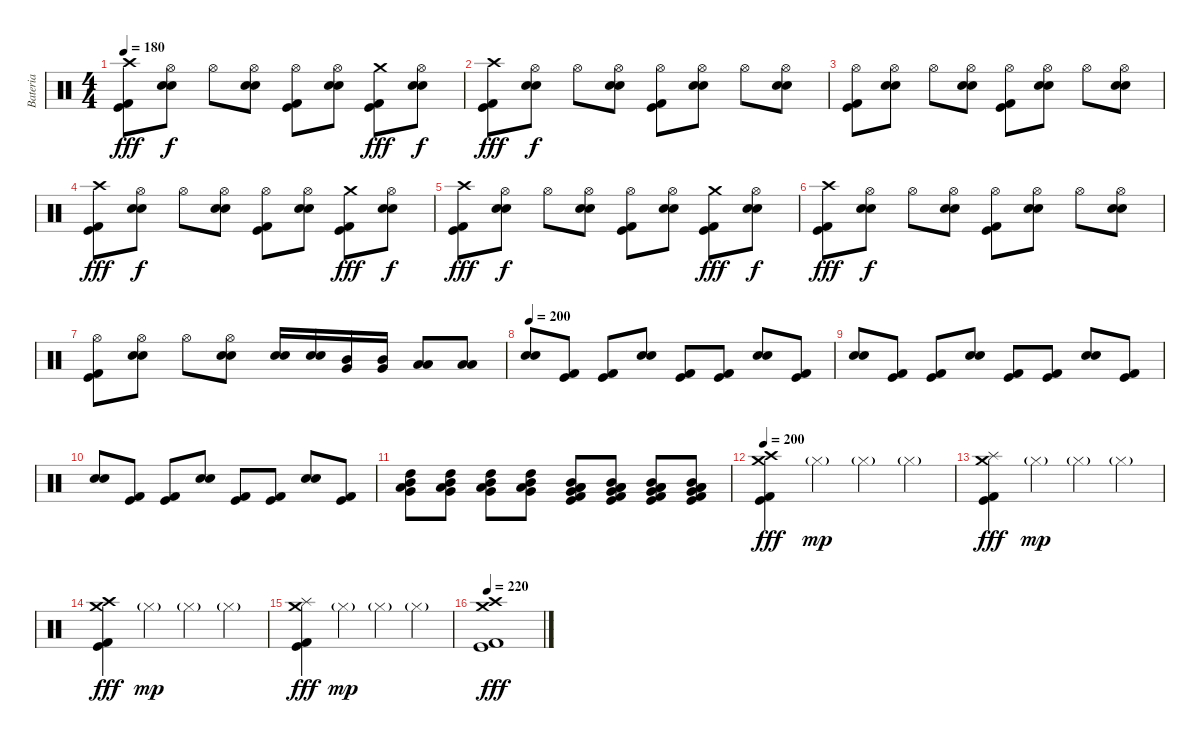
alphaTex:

\track ("Bateria" "Bateria") {instrument percussion}
\staff {score}
\articulation defaults
\ts (4 4)
\tempo 180
\clef neutral
\ks c
("Crash high (hit)" "Kick (hit) 2" "Kick (hit)").8{dy fff} ("Hi-Hat (open)" "Electric Snare (hit)" "Snare (hit) 2").8{dy f} "Hi-Hat (open)".8 ("Hi-Hat (open)" "Electric Snare (hit)" "Snare (hit) 2").8 ("Hi-Hat (open)" "Kick (hit) 2" "Kick (hit)").8 ("Hi-Hat (open)" "Electric Snare (hit)" "Snare (hit) 2").8 ("Crash medium (hit)" "Kick (hit) 2" "Kick (hit)").8{dy fff} ("Hi-Hat (open)" "Electric Snare (hit)" "Snare (hit) 2").8{dy f} |
("Crash high (hit)" "Kick (hit) 2" "Kick (hit)").8{dy fff} ("Hi-Hat (open)" "Electric Snare (hit)" "Snare (hit) 2").8{dy f} "Hi-Hat (open)".8 ("Hi-Hat (open)" "Electric Snare (hit)" "Snare (hit) 2").8 ("Hi-Hat (open)" "Kick (hit) 2" "Kick (hit)").8 ("Hi-Hat (open)" "Electric Snare (hit)" "Snare (hit) 2").8 "Hi-Hat (open)".8 ("Hi-Hat (open)" "Electric Snare (hit)" "Snare (hit) 2").8 |
("Hi-Hat (open)" "Kick (hit) 2" "Kick (hit)").8 ("Hi-Hat (open)" "Electric Snare (hit)" "Snare (hit) 2").8 "Hi-Hat (open)".8 ("Hi-Hat (open)" "Electric Snare (hit)" "Snare (hit) 2").8 ("Hi-Hat (open)" "Kick (hit) 2" "Kick (hit)").8 ("Hi-Hat (open)" "Electric Snare (hit)" "Snare (hit) 2").8 "Hi-Hat (open)".8 ("Hi-Hat (open)" "Electric Snare (hit)" "Snare (hit) 2").8 |
("Crash high (hit)" "Kick (hit) 2" "Kick (hit)").8{dy fff} ("Hi-Hat (open)" "Electric Snare (hit)" "Snare (hit) 2").8{dy f} "Hi-Hat (open)".8 ("Hi-Hat (open)" "Electric Snare (hit)" "Snare (hit) 2").8 ("Hi-Hat (open)" "Kick (hit) 2" "Kick (hit)").8 ("Hi-Hat (open)" "Electric Snare (hit)" "Snare (hit) 2").8 ("Crash medium (hit)" "Kick (hit) 2" "Kick (hit)").8{dy fff} ("Hi-Hat (open)" "Electric Snare (hit)" "Snare (hit) 2").8{dy f} |
("Crash high (hit)" "Kick (hit) 2" "Kick (hit)").8{dy fff} ("Hi-Hat (open)" "Electric Snare (hit)" "Snare (hit) 2").8{dy f} "Hi-Hat (open)".8 ("Hi-Hat (open)" "Electric Snare (hit)" "Snare (hit) 2").8 ("Hi-Hat (open)" "Kick (hit) 2" "Kick (hit)").8 ("Hi-Hat (open)" "Electric Snare (hit)" "Snare (hit) 2").8 ("Crash medium (hit)" "Kick (hit) 2" "Kick (hit)").8{dy fff} ("Hi-Hat (open)" "Electric Snare (hit)" "Snare (hit) 2").8{dy f} |
("Crash high (hit)" "Kick (hit) 2" "Kick (hit)").8{dy fff} ("Hi-Hat (open)" "Electric Snare (hit)" "Snare (hit) 2").8{dy f} "Hi-Hat (open)".8 ("Hi-Hat (open)" "Electric Snare (hit)" "Snare (hit) 2").8 ("Hi-Hat (open)" "Kick (hit) 2" "Kick (hit)").8 ("Hi-Hat (open)" "Electric Snare (hit)" "Snare (hit) 2").8 "Hi-Hat (open)".8 ("Hi-Hat (open)" "Electric Snare (hit)" "Snare (hit) 2").8 |
("Hi-Hat (open)" "Kick (hit) 2" "Kick (hit)").8 ("Hi-Hat (open)" "Electric Snare (hit)" "Snare (hit) 2").8 "Hi-Hat (open)".8 ("Hi-Hat (open)" "Electric Snare (hit)" "Snare (hit) 2").8 ("Electric Snare (hit)" "Snare (hit) 2").16 ("Electric Snare (hit)" "Snare (hit) 2").16 ("Mid Tom (hit)" "Very Low Tom (hit)").16 ("Mid Tom (hit)" "Very Low Tom (hit)").16 ("Low Tom (hit)" "Low Floor Tom (hit)").8 ("Low Tom (hit)" "Low Floor Tom (hit)").8 |
\tempo 200
("Electric Snare (hit)" "Snare (hit) 2").8 ("Kick (hit) 2" "Kick (hit)").8 ("Kick (hit) 2" "Kick (hit)").8 ("Electric Snare (hit)" "Snare (hit) 2").8 ("Kick (hit) 2" "Kick (hit)").8 ("Kick (hit) 2" "Kick (hit)").8 ("Electric Snare (hit)" "Snare (hit) 2").8 ("Kick (hit) 2" "Kick (hit)").8 |
("Electric Snare (hit)" "Snare (hit) 2").8 ("Kick (hit) 2" "Kick (hit)").8 ("Kick (hit) 2" "Kick (hit)").8 ("Electric Snare (hit)" "Snare (hit) 2").8 ("Kick (hit) 2" "Kick (hit)").8 ("Kick (hit) 2" "Kick (hit)").8 ("Electric Snare (hit)" "Snare (hit) 2").8 ("Kick (hit) 2" "Kick (hit)").8 |
("Electric Snare (hit)" "Snare (hit) 2").8 ("Kick (hit) 2" "Kick (hit)").8 ("Kick (hit) 2" "Kick (hit)").8 ("Electric Snare (hit)" "Snare (hit) 2").8 ("Kick (hit) 2" "Kick (hit)").8 ("Kick (hit) 2" "Kick (hit)").8 ("Electric Snare (hit)" "Snare (hit) 2").8 ("Kick (hit) 2" "Kick (hit)").8 |
("High Tom (hit)" "Low Tom (hit)" "Mid Tom (hit)" "Very Low Tom (hit)").8 ("High Tom (hit)" "Low Tom (hit)" "Mid Tom (hit)" "Very Low Tom (hit)").8 ("High Tom (hit)" "Low Tom (hit)" "Mid Tom (hit)" "Very Low Tom (hit)").8 ("High Tom (hit)" "Low Tom (hit)" "Mid Tom (hit)" "Very Low Tom (hit)").8 ("Mid Tom (hit)" "Very Low Tom (hit)" "Low Tom (hit)" "Low Floor Tom (hit)" "Kick (hit) 2" "Kick (hit)").8 ("Mid Tom (hit)" "Very Low Tom (hit)" "Low Tom (hit)" "Low Floor Tom (hit)" "Kick (hit) 2" "Kick (hit)").8 ("Mid Tom (hit)" "Very Low Tom (hit)" "Low Tom (hit)" "Low Floor Tom (hit)" "Kick (hit) 2" "Kick (hit)").8 ("Mid Tom (hit)" "Very Low Tom (hit)" "Low Tom (hit)" "Low Floor Tom (hit)" "Kick (hit) 2" "Kick (hit)").8 |
\tempo 200
("Crash high (hit)" "Crash medium (hit)" "Kick (hit) 2" "Kick (hit)").4{dy fff} "Hi-Hat (closed)"{g}.4{dy mp} "Hi-Hat (closed)"{g}.4 "Hi-Hat (closed)"{g}.4 |
("Crash medium (hit)" "Splash (hit)" "Kick (hit) 2" "Kick (hit)").4{dy fff} "Hi-Hat (closed)"{g}.4{dy mp} "Hi-Hat (closed)"{g}.4 "Hi-Hat (closed)"{g}.4 |
("Crash high (hit)" "Crash medium (hit)" "Kick (hit) 2" "Kick (hit)").4{dy fff} "Hi-Hat (closed)"{g}.4{dy mp} "Hi-Hat (closed)"{g}.4 "Hi-Hat (closed)"{g}.4 |
("Crash medium (hit)" "Splash (hit)" "Kick (hit) 2" "Kick (hit)").4{dy fff} "Hi-Hat (closed)"{g}.4{dy mp} "Hi-Hat (closed)"{g}.4 "Hi-Hat (closed)"{g}.4 |
\tempo 220
("Crash high (hit)" "Crash medium (hit)" "Kick (hit) 2" "Kick (hit)").1{dy fff}
